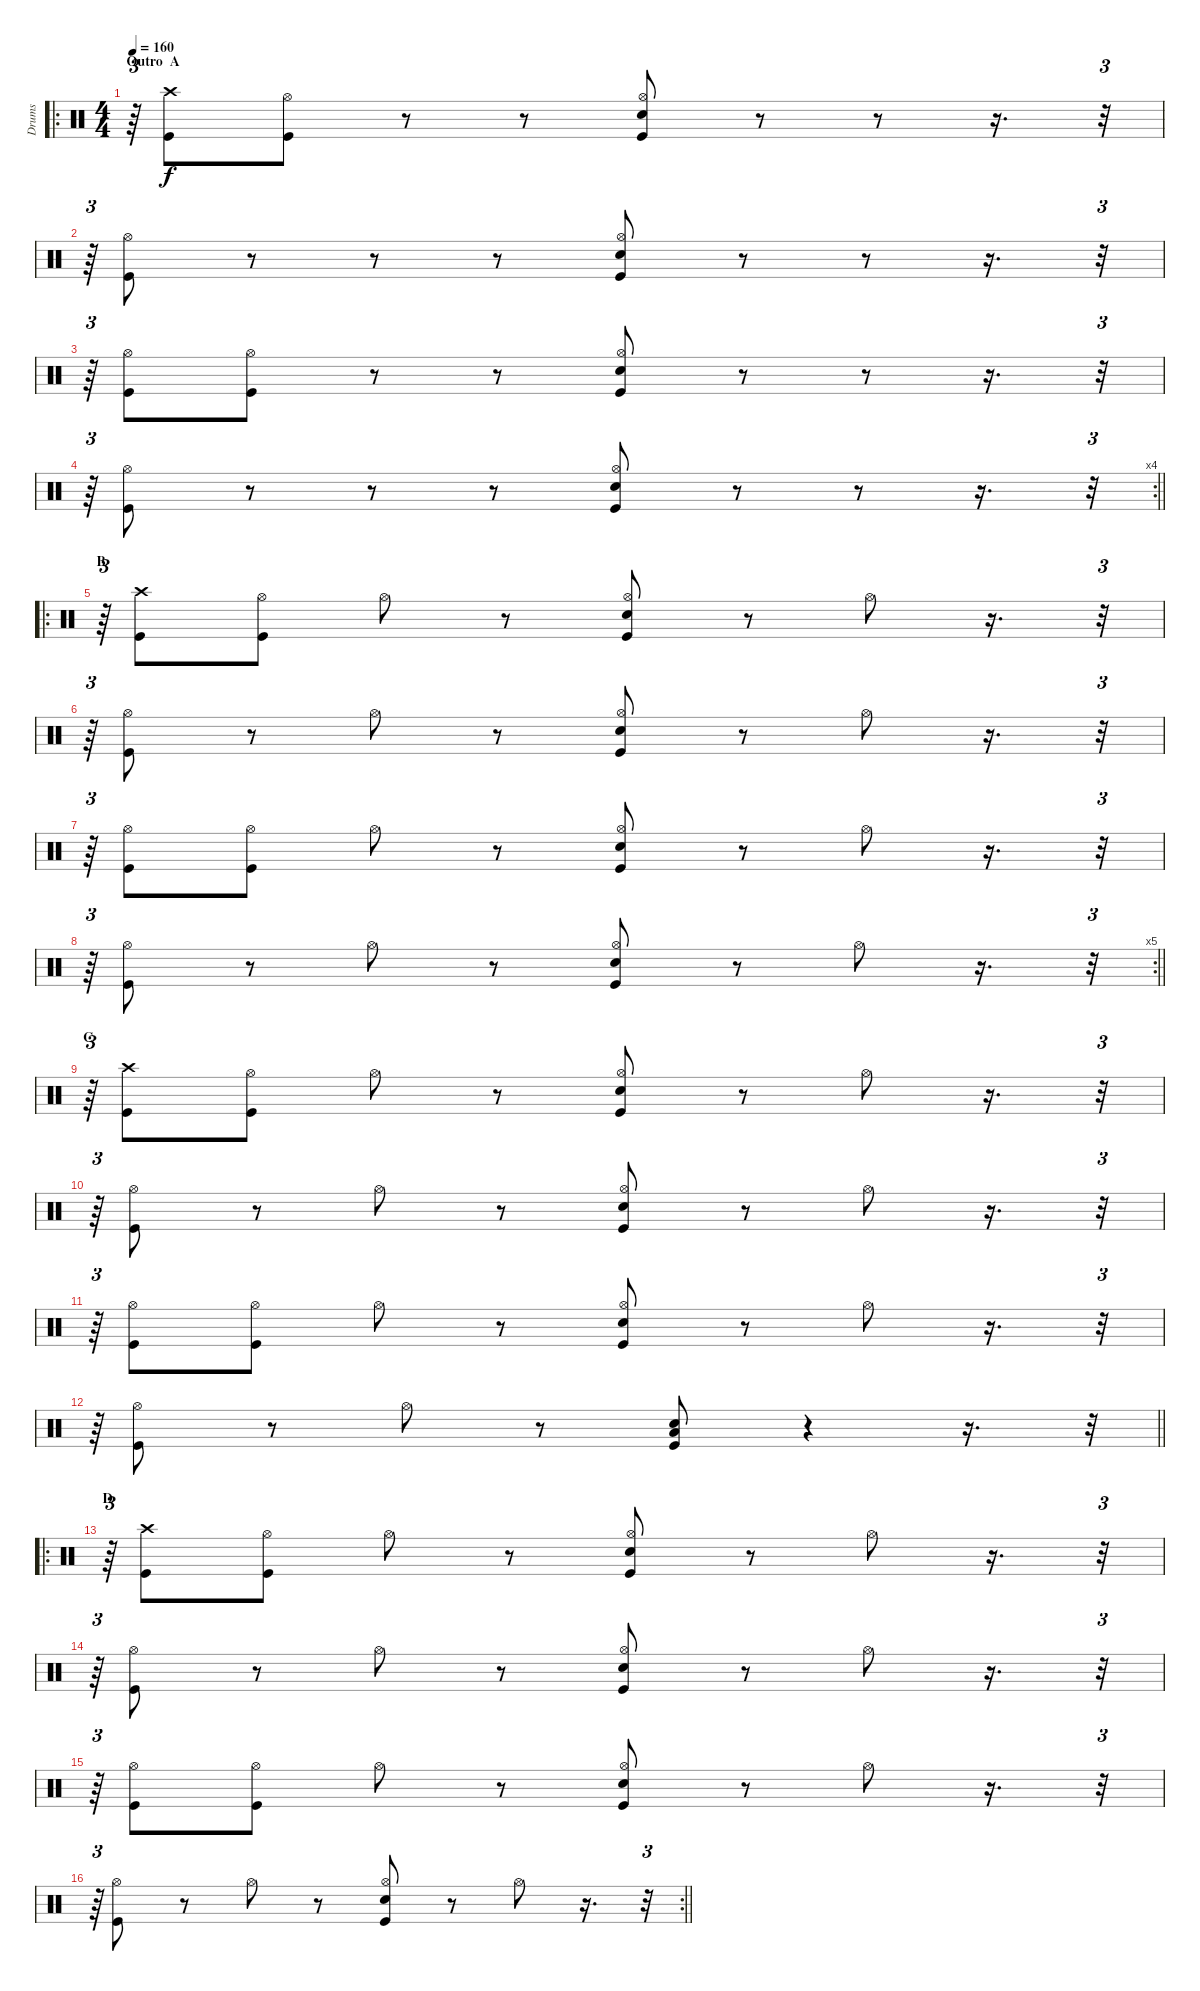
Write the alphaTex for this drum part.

\track ("Drums" "Drums") {instrument percussion}
\staff {score}
\articulation defaults
\ro
\ts (4 4)
\section ("" "Outro  A")
\tempo 160
\clef neutral
\ks c
r.64{tu (3 2) dy ff} ("Kick (hit)" "Crash high (hit)").8{dy f} ("Kick (hit)" "Hi-Hat (open)").8 r.8 r.8 ("Kick (hit)" "Electric Snare (hit)" "Hi-Hat (open)").8 r.8 r.8 r.16{d} r.32{tu (3 2)} |
r.64{tu (3 2)} ("Kick (hit)" "Hi-Hat (open)").8 r.8 r.8 r.8 ("Kick (hit)" "Electric Snare (hit)" "Hi-Hat (open)").8 r.8 r.8 r.16{d} r.32{tu (3 2)} |
r.64{tu (3 2)} ("Kick (hit)" "Hi-Hat (open)").8 ("Kick (hit)" "Hi-Hat (open)").8 r.8 r.8 ("Kick (hit)" "Electric Snare (hit)" "Hi-Hat (open)").8 r.8 r.8 r.16{d} r.32{tu (3 2)} |
\rc 4
\barLineRight lightlight
r.64{tu (3 2)} ("Kick (hit)" "Hi-Hat (open)").8 r.8 r.8 r.8 ("Kick (hit)" "Electric Snare (hit)" "Hi-Hat (open)").8 r.8 r.8 r.16{d} r.32{tu (3 2)} |
\ro
\section ("" "B")
r.64{tu (3 2)} ("Kick (hit)" "Crash high (hit)").8 ("Kick (hit)" "Hi-Hat (open)").8 "Hi-Hat (open)".8 r.8 ("Kick (hit)" "Electric Snare (hit)" "Hi-Hat (open)").8 r.8 "Hi-Hat (open)".8 r.16{d} r.32{tu (3 2)} |
r.64{tu (3 2)} ("Kick (hit)" "Hi-Hat (open)").8 r.8 "Hi-Hat (open)".8 r.8 ("Kick (hit)" "Electric Snare (hit)" "Hi-Hat (open)").8 r.8 "Hi-Hat (open)".8 r.16{d} r.32{tu (3 2)} |
r.64{tu (3 2)} ("Kick (hit)" "Hi-Hat (open)").8 ("Kick (hit)" "Hi-Hat (open)").8 "Hi-Hat (open)".8 r.8 ("Kick (hit)" "Electric Snare (hit)" "Hi-Hat (open)").8 r.8 "Hi-Hat (open)".8 r.16{d} r.32{tu (3 2)} |
\rc 5
\barLineRight lightlight
r.64{tu (3 2)} ("Kick (hit)" "Hi-Hat (open)").8 r.8 "Hi-Hat (open)".8 r.8 ("Kick (hit)" "Electric Snare (hit)" "Hi-Hat (open)").8 r.8 "Hi-Hat (open)".8 r.16{d} r.32{tu (3 2)} |
\section ("" "C")
r.64{tu (3 2)} ("Kick (hit)" "Crash high (hit)").8 ("Kick (hit)" "Hi-Hat (open)").8 "Hi-Hat (open)".8 r.8 ("Kick (hit)" "Electric Snare (hit)" "Hi-Hat (open)").8 r.8 "Hi-Hat (open)".8 r.16{d} r.32{tu (3 2)} |
r.64{tu (3 2)} ("Kick (hit)" "Hi-Hat (open)").8 r.8 "Hi-Hat (open)".8 r.8 ("Kick (hit)" "Electric Snare (hit)" "Hi-Hat (open)").8 r.8 "Hi-Hat (open)".8 r.16{d} r.32{tu (3 2)} |
r.64{tu (3 2)} ("Kick (hit)" "Hi-Hat (open)").8 ("Kick (hit)" "Hi-Hat (open)").8 "Hi-Hat (open)".8 r.8 ("Kick (hit)" "Electric Snare (hit)" "Hi-Hat (open)").8 r.8 "Hi-Hat (open)".8 r.16{d} r.32{tu (3 2)} |
\barLineRight lightlight
r.64{tu (3 2)} ("Kick (hit)" "Hi-Hat (open)").8 r.8 "Hi-Hat (open)".8 r.8 ("Kick (hit)" "Electric Snare (hit)" "Low Floor Tom (hit)").8 r.4 r.16{d} r.32{tu (3 2)} |
\ro
\section ("" "D")
r.64{tu (3 2)} ("Kick (hit)" "Crash high (hit)").8 ("Kick (hit)" "Hi-Hat (open)").8 "Hi-Hat (open)".8 r.8 ("Kick (hit)" "Electric Snare (hit)" "Hi-Hat (open)").8 r.8 "Hi-Hat (open)".8 r.16{d} r.32{tu (3 2)} |
r.64{tu (3 2)} ("Kick (hit)" "Hi-Hat (open)").8 r.8 "Hi-Hat (open)".8 r.8 ("Kick (hit)" "Electric Snare (hit)" "Hi-Hat (open)").8 r.8 "Hi-Hat (open)".8 r.16{d} r.32{tu (3 2)} |
r.64{tu (3 2)} ("Kick (hit)" "Hi-Hat (open)").8 ("Kick (hit)" "Hi-Hat (open)").8 "Hi-Hat (open)".8 r.8 ("Kick (hit)" "Electric Snare (hit)" "Hi-Hat (open)").8 r.8 "Hi-Hat (open)".8 r.16{d} r.32{tu (3 2)} |
\rc 2
\barLineRight lightlight
r.64{tu (3 2)} ("Kick (hit)" "Hi-Hat (open)").8 r.8 "Hi-Hat (open)".8 r.8 ("Kick (hit)" "Electric Snare (hit)" "Hi-Hat (open)").8 r.8 "Hi-Hat (open)".8 r.16{d} r.32{tu (3 2)}
